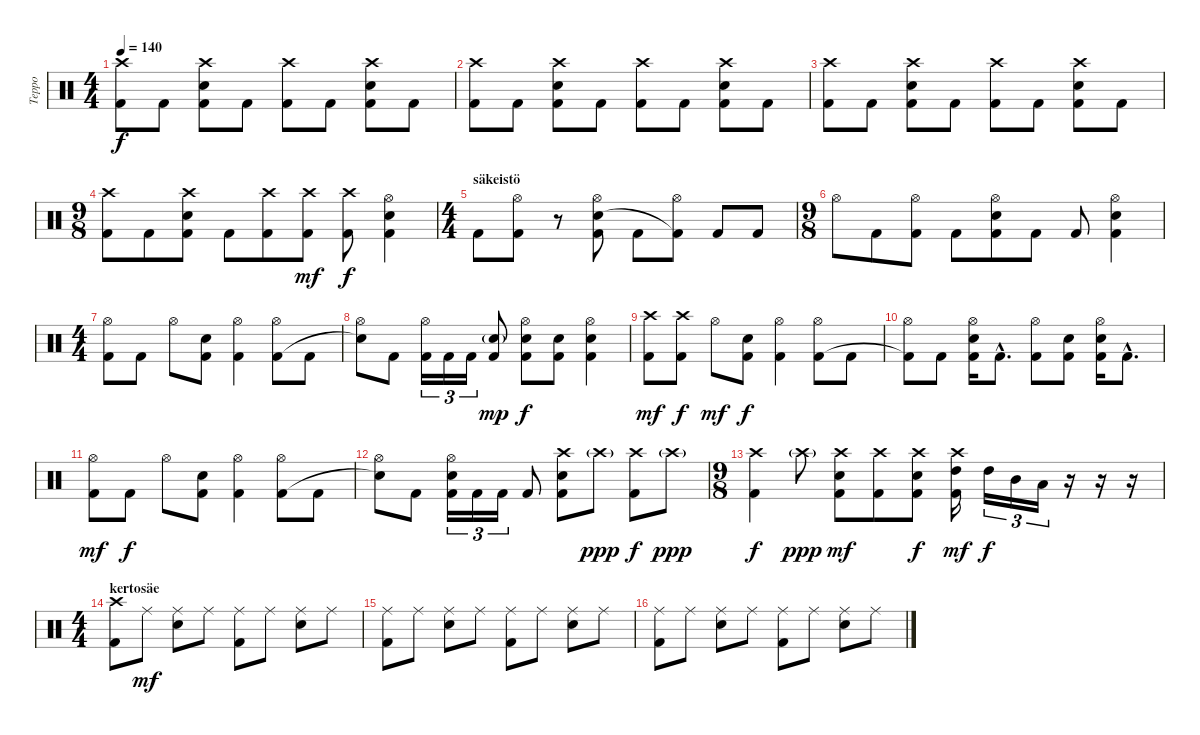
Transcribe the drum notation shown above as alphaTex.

\track ("Teppo" "Teppo") {instrument percussion}
\staff {score}
\articulation defaults
\ts (4 4)
\tempo 140
\clef neutral
\ks c
("Crash high (hit)" "Kick (hit) 2").8{dy f} "Kick (hit) 2".8 ("Crash high (hit)" "Electric Snare (hit)" "Kick (hit) 2").8 "Kick (hit) 2".8 ("Crash high (hit)" "Kick (hit) 2").8 "Kick (hit) 2".8 ("Crash high (hit)" "Electric Snare (hit)" "Kick (hit) 2").8 "Kick (hit) 2".8 |
("Crash high (hit)" "Kick (hit) 2").8 "Kick (hit) 2".8 ("Crash high (hit)" "Electric Snare (hit)" "Kick (hit) 2").8 "Kick (hit) 2".8 ("Crash high (hit)" "Kick (hit) 2").8 "Kick (hit) 2".8 ("Crash high (hit)" "Electric Snare (hit)" "Kick (hit) 2").8 "Kick (hit) 2".8 |
("Crash high (hit)" "Kick (hit) 2").8 "Kick (hit) 2".8 ("Crash high (hit)" "Electric Snare (hit)" "Kick (hit) 2").8 "Kick (hit) 2".8 ("Crash high (hit)" "Kick (hit) 2").8 "Kick (hit) 2".8 ("Crash high (hit)" "Electric Snare (hit)" "Kick (hit) 2").8 "Kick (hit) 2".8 |
\ts (9 8)
("Crash high (hit)" "Kick (hit) 2").8 "Kick (hit) 2".8 ("Crash high (hit)" "Electric Snare (hit)" "Kick (hit) 2").8 "Kick (hit) 2".8 ("Crash high (hit)" "Kick (hit) 2").8 ("Crash high (hit)" "Kick (hit) 2").8{dy mf} ("Crash high (hit)" "Kick (hit) 2").8{dy f} ("Hi-Hat (open)" "Electric Snare (hit)" "Kick (hit) 2").4 |
\ts (4 4)
\section ("" "säkeistö")
"Kick (hit) 2".8 ("Hi-Hat (open)" "Kick (hit) 2").8 r.8 ("Hi-Hat (open)" "Electric Snare (hit)" "Kick (hit) 2").8 "Kick (hit) 2".8 ("Hi-Hat (open)" "Kick (hit) 2"{t}).8 "Kick (hit) 2".8 "Kick (hit) 2".8 |
\ts (9 8)
"Hi-Hat (open)".8 "Kick (hit) 2".8 ("Hi-Hat (open)" "Kick (hit) 2").8 "Kick (hit) 2".8 ("Hi-Hat (open)" "Electric Snare (hit)" "Kick (hit) 2").8 "Kick (hit) 2".8 "Kick (hit) 2".8 ("Hi-Hat (open)" "Electric Snare (hit)" "Kick (hit) 2").4 |
\ts (4 4)
("Hi-Hat (open)" "Kick (hit) 2").8 "Kick (hit) 2".8 "Hi-Hat (open)".8 ("Electric Snare (hit)" "Kick (hit) 2").8 ("Hi-Hat (open)" "Kick (hit) 2").4 ("Hi-Hat (open)" "Kick (hit) 2").8 "Kick (hit) 2".8 |
("Hi-Hat (open)" "Snare (hit)"{t}).8 "Kick (hit) 2".8 ("Hi-Hat (open)" "Kick (hit) 2").16{tu (3 2)} "Kick (hit) 2".16{tu (3 2)} "Kick (hit) 2".16{tu (3 2)} ("Electric Snare (hit)"{g} "Kick (hit) 2").8{dy mp} ("Hi-Hat (open)" "Electric Snare (hit)" "Kick (hit) 2").8{dy f} ("Electric Snare (hit)" "Kick (hit) 2").8 ("Hi-Hat (open)" "Electric Snare (hit)" "Kick (hit) 2").4 |
("Crash high (hit)" "Kick (hit) 2").8{dy mf} ("Crash high (hit)" "Kick (hit) 2").8{dy f} "Hi-Hat (open)".8{dy mf} ("Electric Snare (hit)" "Kick (hit) 2").8{dy f} ("Hi-Hat (open)" "Kick (hit) 2").4 ("Hi-Hat (open)" "Kick (hit) 2").8 "Kick (hit) 2".8 |
("Hi-Hat (open)" "Kick (hit) 2"{t}).8 "Kick (hit) 2".8 ("Hi-Hat (open)" "Electric Snare (hit)" "Kick (hit) 2").16 "Kick (hit) 2"{hac}.8{d} ("Hi-Hat (open)" "Kick (hit) 2").8 ("Electric Snare (hit)" "Kick (hit) 2").8 ("Hi-Hat (open)" "Electric Snare (hit)" "Kick (hit) 2").16 "Kick (hit) 2"{hac}.8{d} |
("Hi-Hat (open)" "Kick (hit) 2").8{dy mf} "Kick (hit) 2".8{dy f} "Hi-Hat (open)".8 ("Electric Snare (hit)" "Kick (hit) 2").8 ("Hi-Hat (open)" "Kick (hit) 2").4 ("Hi-Hat (open)" "Kick (hit) 2").8 "Kick (hit) 2".8 |
("Hi-Hat (open)" "Snare (hit)"{t}).8 "Kick (hit) 2".8 ("Hi-Hat (open)" "Electric Snare (hit)" "Kick (hit) 2").16{tu (3 2)} "Kick (hit) 2".16{tu (3 2)} "Kick (hit) 2".16{tu (3 2)} "Kick (hit) 2".8 ("Crash high (hit)"{pm} "Electric Snare (hit)" "Kick (hit) 2").8 "Crash high (hit)"{g}.8{dy ppp} ("Crash high (hit)"{pm} "Kick (hit) 2").8{dy f} "Crash high (hit)"{g}.8{dy ppp} |
\ts (9 8)
("Crash high (hit)"{pm} "Kick (hit) 2").4{dy f} "Crash high (hit)"{g}.8{dy ppp} ("Crash high (hit)" "Electric Snare (hit)" "Kick (hit) 2").8{dy mf} ("Crash high (hit)" "Kick (hit) 2").8 ("Crash high (hit)" "Electric Snare (hit)" "Kick (hit) 2").8{dy f} ("Crash high (hit)" "High Tom (hit)" "Kick (hit) 2").16{dy mf} "High Tom (hit)".16{tu (3 2) dy f} "Mid Tom (hit)".16{tu (3 2)} "Low Tom (hit)".16{tu (3 2)} r.16 r.16 r.16 |
\ts (4 4)
\section ("" "kertosäe")
("Crash high (hit)" "Kick (hit) 2").8 "Ride (middle)".8{dy mf} ("Ride (middle)" "Electric Snare (hit)").8 "Ride (middle)".8 ("Ride (middle)" "Kick (hit) 2").8 "Ride (middle)".8 ("Ride (middle)" "Electric Snare (hit)").8 "Ride (middle)".8 |
("Ride (middle)" "Kick (hit) 2").8 "Ride (middle)".8 ("Ride (middle)" "Electric Snare (hit)").8 "Ride (middle)".8 ("Ride (middle)" "Kick (hit) 2").8 "Ride (middle)".8 ("Ride (middle)" "Electric Snare (hit)").8 "Ride (middle)".8 |
("Ride (middle)" "Kick (hit) 2").8 "Ride (middle)".8 ("Ride (middle)" "Electric Snare (hit)").8 "Ride (middle)".8 ("Ride (middle)" "Kick (hit) 2").8 "Ride (middle)".8 ("Ride (middle)" "Electric Snare (hit)").8 "Ride (middle)".8
